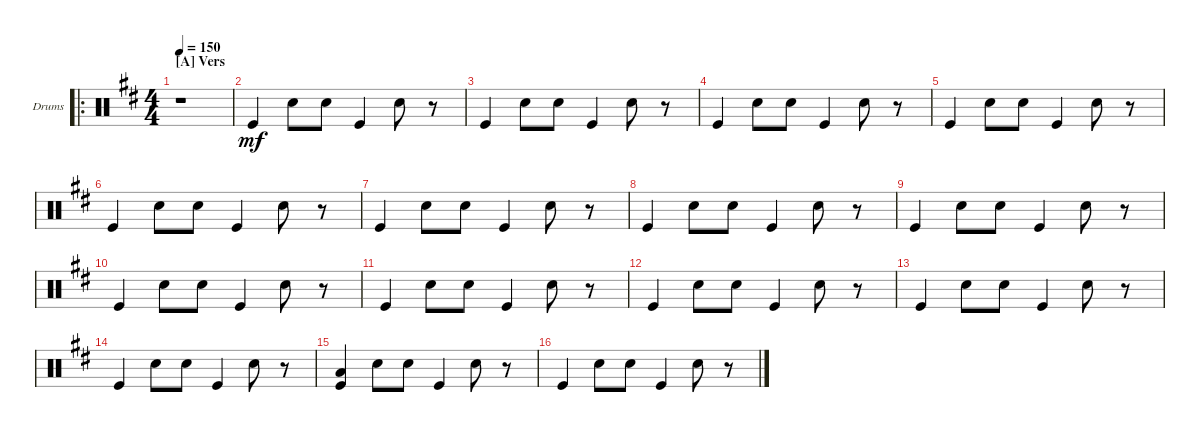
\defaultSystemsLayout 4
\bracketExtendMode groupsimilarinstruments
\firstSystemTrackNameOrientation horizontal
\otherSystemsTrackNameOrientation horizontal
\track ("Drums" "Drums") {instrument percussion}
\staff {score}
\articulation defaults
\ro
\ts (4 4)
\section ("A" "Vers")
\tempo 150
\clef neutral
\scale
0.538462
\ks d
r.1{dy mf} |
\scale
0.230769 "Kick (hit)".4 "Snare (hit) 2".8 "Snare (hit) 2".8 "Kick (hit)".4 "Snare (hit) 2".8 r.8 |
\scale
0.230769 "Kick (hit)".4 "Snare (hit) 2".8 "Snare (hit) 2".8 "Kick (hit)".4 "Snare (hit) 2".8 r.8 |
\scale
0.333333 "Kick (hit)".4 "Snare (hit) 2".8 "Snare (hit) 2".8 "Kick (hit)".4 "Snare (hit) 2".8 r.8 |
\scale
0.333333 "Kick (hit)".4 "Snare (hit) 2".8 "Snare (hit) 2".8 "Kick (hit)".4 "Snare (hit) 2".8 r.8 |
\scale
0.333333 "Kick (hit)".4 "Snare (hit) 2".8 "Snare (hit) 2".8 "Kick (hit)".4 "Snare (hit) 2".8 r.8 |
\scale
0.333333 "Kick (hit)".4 "Snare (hit) 2".8 "Snare (hit) 2".8 "Kick (hit)".4 "Snare (hit) 2".8 r.8 |
\scale
0.333333 "Kick (hit)".4 "Snare (hit) 2".8 "Snare (hit) 2".8 "Kick (hit)".4 "Snare (hit) 2".8 r.8 |
\scale
0.333333 "Kick (hit)".4 "Snare (hit) 2".8 "Snare (hit) 2".8 "Kick (hit)".4 "Snare (hit) 2".8 r.8 |
\scale
0.333333 "Kick (hit)".4 "Snare (hit) 2".8 "Snare (hit) 2".8 "Kick (hit)".4 "Snare (hit) 2".8 r.8 |
\scale
0.333333 "Kick (hit)".4 "Snare (hit) 2".8 "Snare (hit) 2".8 "Kick (hit)".4 "Snare (hit) 2".8 r.8 |
\scale
0.333333 "Kick (hit)".4 "Snare (hit) 2".8 "Snare (hit) 2".8 "Kick (hit)".4 "Snare (hit) 2".8 r.8 |
\scale
0.333333 "Kick (hit)".4 "Snare (hit) 2".8 "Snare (hit) 2".8 "Kick (hit)".4 "Snare (hit) 2".8 r.8 |
\scale
0.333333 "Kick (hit)".4 "Snare (hit) 2".8 "Snare (hit) 2".8 "Kick (hit)".4 "Snare (hit) 2".8 r.8 |
\scale
0.333333 ("Kick (hit)" "Low Tom (hit)").4 "Snare (hit) 2".8 "Snare (hit) 2".8 "Kick (hit)".4 "Snare (hit) 2".8 r.8 |
\scale
0.333333 "Kick (hit)".4 "Snare (hit) 2".8 "Snare (hit) 2".8 "Kick (hit)".4 "Snare (hit) 2".8 r.8
